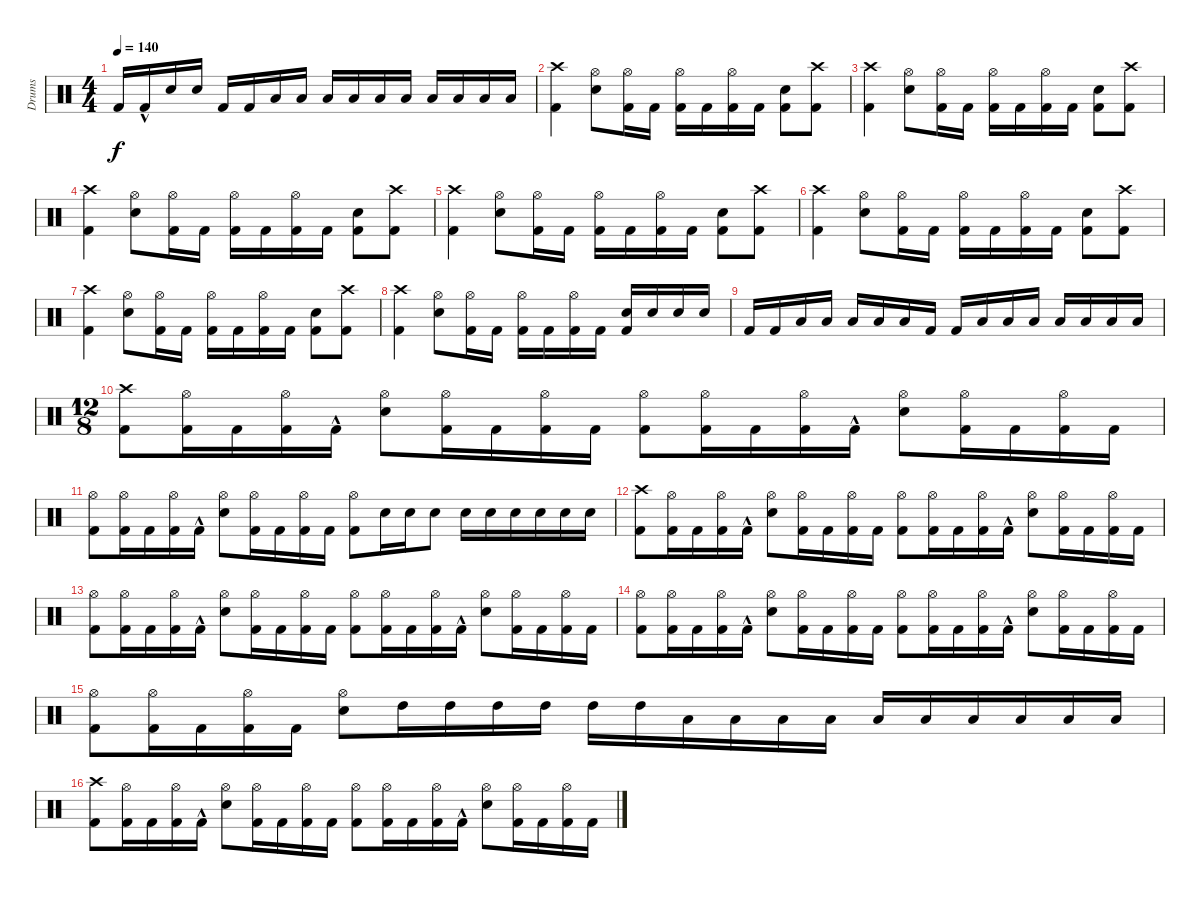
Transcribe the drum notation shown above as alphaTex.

\track ("Drums" "Drums") {instrument percussion}
\staff {score}
\articulation defaults
\ts (4 4)
\tempo 140
\clef neutral
\ks c "Kick (hit) 2".16{dy f} "Kick (hit) 2"{hac}.16 "Snare (hit) 2".16 "Snare (hit) 2".16 "Kick (hit) 2".16 "Kick (hit) 2".16 "Low Floor Tom (hit)".16 "Low Floor Tom (hit)".16 "Low Floor Tom (hit)".16 "Low Floor Tom (hit)".16 "Low Tom (hit)".16 "Low Tom (hit)".16 "Low Tom (hit)".16 "Low Tom (hit)".16 "Low Tom (hit)".16 "Low Tom (hit)".16
|
("Kick (hit) 2" "Crash high (hit)").4 ("Snare (hit) 2" "Hi-Hat (open)").8 ("Kick (hit) 2" "Hi-Hat (open)").16 "Kick (hit) 2".16 ("Hi-Hat (open)" "Kick (hit) 2").16 "Kick (hit) 2".16 ("Hi-Hat (open)" "Kick (hit) 2").16 "Kick (hit) 2".16 ("Snare (hit) 2" "Kick (hit) 2").8 ("Kick (hit) 2" "Crash high (hit)").8 |
("Kick (hit) 2" "Crash high (hit)").4 ("Snare (hit) 2" "Hi-Hat (open)").8 ("Kick (hit) 2" "Hi-Hat (open)").16 "Kick (hit) 2".16 ("Hi-Hat (open)" "Kick (hit) 2").16 "Kick (hit) 2".16 ("Hi-Hat (open)" "Kick (hit) 2").16 "Kick (hit) 2".16 ("Snare (hit) 2" "Kick (hit) 2").8 ("Kick (hit) 2" "Crash high (hit)").8 |
("Kick (hit) 2" "Crash high (hit)").4 ("Snare (hit) 2" "Hi-Hat (open)").8 ("Kick (hit) 2" "Hi-Hat (open)").16 "Kick (hit) 2".16 ("Hi-Hat (open)" "Kick (hit) 2").16 "Kick (hit) 2".16 ("Hi-Hat (open)" "Kick (hit) 2").16 "Kick (hit) 2".16 ("Snare (hit) 2" "Kick (hit) 2").8 ("Kick (hit) 2" "Crash high (hit)").8 |
("Kick (hit) 2" "Crash high (hit)").4 ("Snare (hit) 2" "Hi-Hat (open)").8 ("Kick (hit) 2" "Hi-Hat (open)").16 "Kick (hit) 2".16 ("Hi-Hat (open)" "Kick (hit) 2").16 "Kick (hit) 2".16 ("Hi-Hat (open)" "Kick (hit) 2").16 "Kick (hit) 2".16 ("Snare (hit) 2" "Kick (hit) 2").8 ("Kick (hit) 2" "Crash high (hit)").8 |
("Kick (hit) 2" "Crash high (hit)").4 ("Snare (hit) 2" "Hi-Hat (open)").8 ("Kick (hit) 2" "Hi-Hat (open)").16 "Kick (hit) 2".16 ("Hi-Hat (open)" "Kick (hit) 2").16 "Kick (hit) 2".16 ("Hi-Hat (open)" "Kick (hit) 2").16 "Kick (hit) 2".16 ("Snare (hit) 2" "Kick (hit) 2").8 ("Kick (hit) 2" "Crash high (hit)").8 |
("Kick (hit) 2" "Crash high (hit)").4 ("Snare (hit) 2" "Hi-Hat (open)").8 ("Kick (hit) 2" "Hi-Hat (open)").16 "Kick (hit) 2".16 ("Hi-Hat (open)" "Kick (hit) 2").16 "Kick (hit) 2".16 ("Hi-Hat (open)" "Kick (hit) 2").16 "Kick (hit) 2".16 ("Snare (hit) 2" "Kick (hit) 2").8 ("Kick (hit) 2" "Crash high (hit)").8 |
("Kick (hit) 2" "Crash high (hit)").4 ("Snare (hit) 2" "Hi-Hat (open)").8 ("Kick (hit) 2" "Hi-Hat (open)").16 "Kick (hit) 2".16 ("Hi-Hat (open)" "Kick (hit) 2").16 "Kick (hit) 2".16 ("Hi-Hat (open)" "Kick (hit) 2").16 "Kick (hit) 2".16 ("Snare (hit) 2" "Kick (hit) 2").16 "Snare (hit) 2".16 "Snare (hit) 2".16 "Snare (hit) 2".16 |
"Kick (hit) 2".16 "Kick (hit) 2".16 "Low Tom (hit)".16 "Low Tom (hit)".16 "Low Tom (hit)".16 "Low Tom (hit)".16 "Low Tom (hit)".16 "Kick (hit) 2".16 "Kick (hit) 2".16 "Low Floor Tom (hit)".16 "Low Floor Tom (hit)".16 "Low Floor Tom (hit)".16 "Low Floor Tom (hit)".16 "Low Tom (hit)".16 "Low Tom (hit)".16 "Low Tom (hit)".16 |
\ts (12 8)
("Kick (hit) 2" "Crash high (hit)").8 ("Kick (hit) 2" "Hi-Hat (open)").16 "Kick (hit) 2".16 ("Hi-Hat (open)" "Kick (hit) 2").16 "Kick (hit) 2"{hac}.16 ("Hi-Hat (open)" "Snare (hit) 2").8 ("Kick (hit) 2" "Hi-Hat (open)").16 "Kick (hit) 2".16 ("Hi-Hat (open)" "Kick (hit) 2").16 "Kick (hit) 2".16 ("Hi-Hat (open)" "Kick (hit) 2").8 ("Kick (hit) 2" "Hi-Hat (open)").16 "Kick (hit) 2".16 ("Hi-Hat (open)" "Kick (hit) 2").16 "Kick (hit) 2"{hac}.16 ("Hi-Hat (open)" "Snare (hit) 2").8 ("Kick (hit) 2" "Hi-Hat (open)").16 "Kick (hit) 2".16 ("Hi-Hat (open)" "Kick (hit) 2").16 "Kick (hit) 2".16 |
("Kick (hit) 2" "Hi-Hat (open)").8 ("Hi-Hat (open)" "Kick (hit) 2").16 "Kick (hit) 2".16 ("Kick (hit) 2" "Hi-Hat (open)").16 "Kick (hit) 2"{hac}.16 ("Snare (hit) 2" "Hi-Hat (open)").8 ("Hi-Hat (open)" "Kick (hit) 2").16 "Kick (hit) 2".16 ("Kick (hit) 2" "Hi-Hat (open)").16 "Kick (hit) 2".16 ("Kick (hit) 2" "Hi-Hat (open)").8 "Snare (hit) 2".16 "Snare (hit) 2".16 "Snare (hit) 2".8 "Snare (hit) 2".16 "Snare (hit) 2".16 "Snare (hit) 2".16 "Snare (hit) 2".16 "Snare (hit) 2".16 "Snare (hit) 2".16 |
("Kick (hit) 2" "Crash high (hit)").8 ("Kick (hit) 2" "Hi-Hat (open)").16 "Kick (hit) 2".16 ("Hi-Hat (open)" "Kick (hit) 2").16 "Kick (hit) 2"{hac}.16 ("Hi-Hat (open)" "Snare (hit) 2").8 ("Kick (hit) 2" "Hi-Hat (open)").16 "Kick (hit) 2".16 ("Hi-Hat (open)" "Kick (hit) 2").16 "Kick (hit) 2".16 ("Hi-Hat (open)" "Kick (hit) 2").8 ("Kick (hit) 2" "Hi-Hat (open)").16 "Kick (hit) 2".16 ("Hi-Hat (open)" "Kick (hit) 2").16 "Kick (hit) 2"{hac}.16 ("Hi-Hat (open)" "Snare (hit) 2").8 ("Kick (hit) 2" "Hi-Hat (open)").16 "Kick (hit) 2".16 ("Hi-Hat (open)" "Kick (hit) 2").16 "Kick (hit) 2".16 |
("Hi-Hat (open)" "Kick (hit) 2").8 ("Kick (hit) 2" "Hi-Hat (open)").16 "Kick (hit) 2".16 ("Hi-Hat (open)" "Kick (hit) 2").16 "Kick (hit) 2"{hac}.16 ("Hi-Hat (open)" "Snare (hit) 2").8 ("Kick (hit) 2" "Hi-Hat (open)").16 "Kick (hit) 2".16 ("Hi-Hat (open)" "Kick (hit) 2").16 "Kick (hit) 2".16 ("Hi-Hat (open)" "Kick (hit) 2").8 ("Kick (hit) 2" "Hi-Hat (open)").16 "Kick (hit) 2".16 ("Hi-Hat (open)" "Kick (hit) 2").16 "Kick (hit) 2"{hac}.16 ("Hi-Hat (open)" "Snare (hit) 2").8 ("Kick (hit) 2" "Hi-Hat (open)").16 "Kick (hit) 2".16 ("Hi-Hat (open)" "Kick (hit) 2").16 "Kick (hit) 2".16 |
("Hi-Hat (open)" "Kick (hit) 2").8 ("Kick (hit) 2" "Hi-Hat (open)").16 "Kick (hit) 2".16 ("Hi-Hat (open)" "Kick (hit) 2").16 "Kick (hit) 2"{hac}.16 ("Hi-Hat (open)" "Snare (hit) 2").8 ("Kick (hit) 2" "Hi-Hat (open)").16 "Kick (hit) 2".16 ("Hi-Hat (open)" "Kick (hit) 2").16 "Kick (hit) 2".16 ("Hi-Hat (open)" "Kick (hit) 2").8 ("Kick (hit) 2" "Hi-Hat (open)").16 "Kick (hit) 2".16 ("Hi-Hat (open)" "Kick (hit) 2").16 "Kick (hit) 2"{hac}.16 ("Hi-Hat (open)" "Snare (hit) 2").8 ("Kick (hit) 2" "Hi-Hat (open)").16 "Kick (hit) 2".16 ("Hi-Hat (open)" "Kick (hit) 2").16 "Kick (hit) 2".16 |
("Hi-Hat (open)" "Kick (hit) 2").8 ("Kick (hit) 2" "Hi-Hat (open)").16 "Kick (hit) 2".16 ("Hi-Hat (open)" "Kick (hit) 2").16 "Kick (hit) 2".16 ("Hi-Hat (open)" "Snare (hit) 2").8 "High Tom (hit)".16 "High Tom (hit)".16 "High Tom (hit)".16 "High Tom (hit)".16 "High Tom (hit)".16 "High Tom (hit)".16 "Low Tom (hit)".16 "Low Tom (hit)".16 "Low Tom (hit)".16 "Low Tom (hit)".16 "Low Tom (hit)".16 "Low Floor Tom (hit)".16 "Low Floor Tom (hit)".16 "Low Floor Tom (hit)".16 "Low Floor Tom (hit)".16 "Low Floor Tom (hit)".16 |
("Kick (hit) 2" "Crash high (hit)").8 ("Kick (hit) 2" "Hi-Hat (open)").16 "Kick (hit) 2".16 ("Hi-Hat (open)" "Kick (hit) 2").16 "Kick (hit) 2"{hac}.16 ("Hi-Hat (open)" "Snare (hit) 2").8 ("Kick (hit) 2" "Hi-Hat (open)").16 "Kick (hit) 2".16 ("Hi-Hat (open)" "Kick (hit) 2").16 "Kick (hit) 2".16 ("Hi-Hat (open)" "Kick (hit) 2").8 ("Kick (hit) 2" "Hi-Hat (open)").16 "Kick (hit) 2".16 ("Hi-Hat (open)" "Kick (hit) 2").16 "Kick (hit) 2"{hac}.16 ("Hi-Hat (open)" "Snare (hit) 2").8 ("Kick (hit) 2" "Hi-Hat (open)").16 "Kick (hit) 2".16 ("Hi-Hat (open)" "Kick (hit) 2").16 "Kick (hit) 2".16
